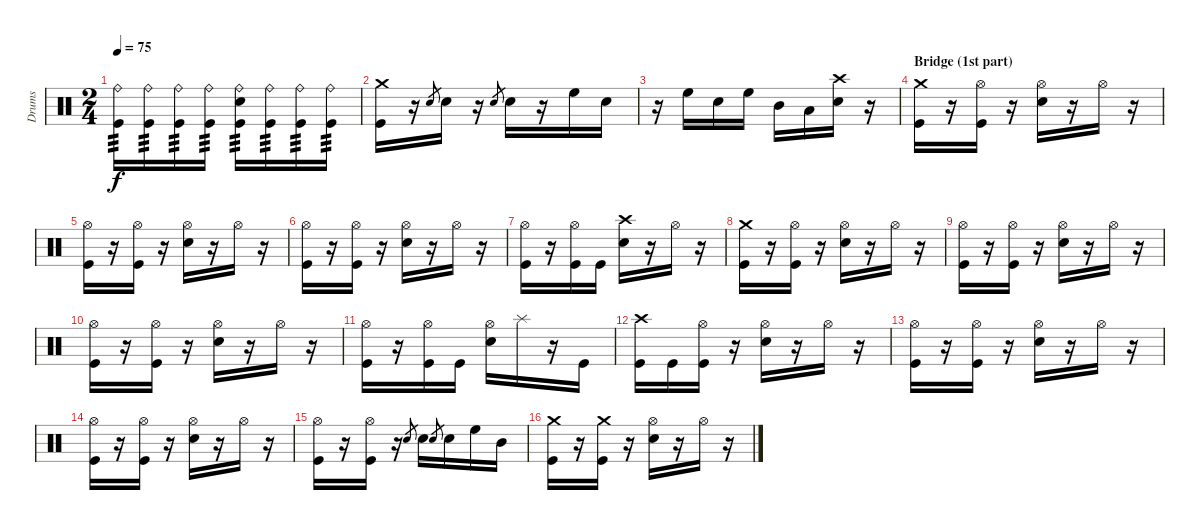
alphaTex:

\track ("Drums" "Drums") {instrument percussion}
\staff {score}
\articulation defaults
\ts (2 4)
\tempo 75
\clef neutral
\ks c
("Ride (bell)" "Kick (hit)").16{tp 3 dy f} ("Ride (bell)" "Kick (hit)").16{tp 3} ("Ride (bell)" "Kick (hit)").16{tp 3} ("Ride (bell)" "Kick (hit)").16{tp 3} ("Ride (bell)" "Electric Snare (hit)" "Kick (hit)").16{tp 3} ("Ride (bell)" "Kick (hit)").16{tp 3} ("Ride (bell)" "Kick (hit)").16{tp 3} ("Ride (bell)" "Kick (hit)").16{tp 3} |
("Crash medium (hit)" "Kick (hit)").16 r.16 "Electric Snare (hit)".8{gr} "Electric Snare (hit)".16 r.16 "Electric Snare (hit)".8{gr} "Electric Snare (hit)".16 r.16 "High Floor Tom (hit)".16 "Electric Snare (hit)".16 |
r.16 "High Floor Tom (hit)".16 "Electric Snare (hit)".16 "High Floor Tom (hit)".16 "Mid Tom (hit)".16 "Low Tom (hit)".16 ("Crash high (hit)" "Electric Snare (hit)").16 r.16 |
\section ("" "Bridge (1st part)")
("Crash medium (hit)" "Kick (hit)").16 r.16 ("Hi-Hat (open)" "Kick (hit)").16 r.16 ("Hi-Hat (open)" "Electric Snare (hit)").16 r.16 "Hi-Hat (open)".16 r.16 |
("Hi-Hat (open)" "Kick (hit)").16 r.16 ("Hi-Hat (open)" "Kick (hit)").16 r.16 ("Hi-Hat (open)" "Electric Snare (hit)").16 r.16 "Hi-Hat (open)".16 r.16 |
("Hi-Hat (open)" "Kick (hit)").16 r.16 ("Hi-Hat (open)" "Kick (hit)").16 r.16 ("Hi-Hat (open)" "Electric Snare (hit)").16 r.16 "Hi-Hat (open)".16 r.16 |
("Hi-Hat (open)" "Kick (hit)").16 r.16 ("Hi-Hat (open)" "Kick (hit)").16 "Kick (hit)".16 ("Crash high (hit)" "Electric Snare (hit)").16 r.16 "Hi-Hat (open)".16 r.16 |
("Crash medium (hit)" "Kick (hit)").16 r.16 ("Hi-Hat (open)" "Kick (hit)").16 r.16 ("Hi-Hat (open)" "Electric Snare (hit)").16 r.16 "Hi-Hat (open)".16 r.16 |
("Hi-Hat (open)" "Kick (hit)").16 r.16 ("Hi-Hat (open)" "Kick (hit)").16 r.16 ("Hi-Hat (open)" "Electric Snare (hit)").16 r.16 "Hi-Hat (open)".16 r.16 |
("Hi-Hat (open)" "Kick (hit)").16 r.16 ("Hi-Hat (open)" "Kick (hit)").16 r.16 ("Hi-Hat (open)" "Electric Snare (hit)").16 r.16 "Hi-Hat (open)".16 r.16 |
("Hi-Hat (open)" "Kick (hit)").16 r.16 ("Hi-Hat (open)" "Kick (hit)").16 "Kick (hit)".16 ("Hi-Hat (open)" "Electric Snare (hit)").16 "Splash (hit)".16 r.16 "Kick (hit)".16 |
("Crash high (hit)" "Kick (hit)").16 "Kick (hit)".16 ("Hi-Hat (open)" "Kick (hit)").16 r.16 ("Hi-Hat (open)" "Electric Snare (hit)").16 r.16 "Hi-Hat (open)".16 r.16 |
("Hi-Hat (open)" "Kick (hit)").16 r.16 ("Hi-Hat (open)" "Kick (hit)").16 r.16 ("Hi-Hat (open)" "Electric Snare (hit)").16 r.16 "Hi-Hat (open)".16 r.16 |
("Hi-Hat (open)" "Kick (hit)").16 r.16 ("Hi-Hat (open)" "Kick (hit)").16 r.16 ("Hi-Hat (open)" "Electric Snare (hit)").16 r.16 "Hi-Hat (open)".16 r.16 |
("Hi-Hat (open)" "Kick (hit)").16 r.16 ("Hi-Hat (open)" "Kick (hit)").16 r.16 "Electric Snare (hit)".8{gr} "Electric Snare (hit)".16 "Electric Snare (hit)".8{gr} "Electric Snare (hit)".16 "High Floor Tom (hit)".16 "Mid Tom (hit)".16 |
("Crash medium (hit)" "Kick (hit)").16 r.16 ("Crash medium (hit)" "Kick (hit)").16 r.16 ("Hi-Hat (open)" "Electric Snare (hit)").16 r.16 "Hi-Hat (open)".16 r.16
